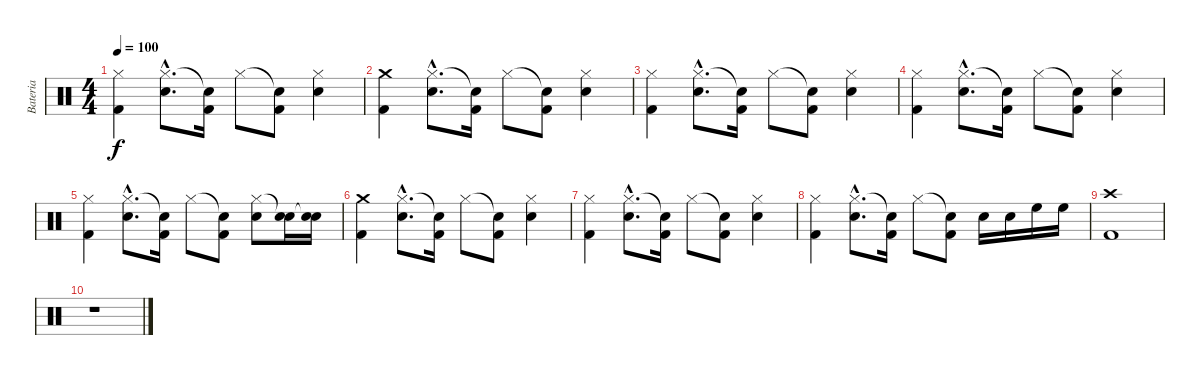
\track ("Bateria" "Bateria") {instrument percussion}
\staff {score}
\articulation defaults
\ts (4 4)
\tempo 100
\clef neutral
\ks c
("Hi-Hat (closed)" "Kick (hit) 2").4{dy f} ("Hi-Hat (closed)"{hac} "Electric Snare (hit)"{hac}).8{d} ("Snare (hit)"{t} "Kick (hit) 2").16 "Hi-Hat (closed)".8 ("Snare (hit)"{t} "Kick (hit) 2").8 ("Hi-Hat (closed)" "Electric Snare (hit)").4 |
("Crash medium (hit)" "Kick (hit) 2").4 ("Hi-Hat (closed)"{hac} "Electric Snare (hit)"{hac}).8{d} ("Snare (hit)"{t} "Kick (hit) 2").16 "Hi-Hat (closed)".8 ("Snare (hit)"{t} "Kick (hit) 2").8 ("Hi-Hat (closed)" "Electric Snare (hit)").4 |
("Hi-Hat (closed)" "Kick (hit) 2").4 ("Hi-Hat (closed)"{hac} "Electric Snare (hit)"{hac}).8{d} ("Snare (hit)"{t} "Kick (hit) 2").16 "Hi-Hat (closed)".8 ("Snare (hit)"{t} "Kick (hit) 2").8 ("Hi-Hat (closed)" "Electric Snare (hit)").4 |
("Hi-Hat (closed)" "Kick (hit) 2").4 ("Hi-Hat (closed)"{hac} "Electric Snare (hit)"{hac}).8{d} ("Snare (hit)"{t} "Kick (hit) 2").16 "Hi-Hat (closed)".8 ("Snare (hit)"{t} "Kick (hit) 2").8 ("Hi-Hat (closed)" "Electric Snare (hit)").4 |
("Hi-Hat (closed)" "Kick (hit) 2").4 ("Hi-Hat (closed)"{hac} "Electric Snare (hit)"{hac}).8{d} ("Snare (hit)"{t} "Kick (hit) 2").16 "Hi-Hat (closed)".8 ("Snare (hit)"{t} "Kick (hit) 2").8 ("Hi-Hat (closed)" "Electric Snare (hit)").8 ("Snare (hit)"{t} "Electric Snare (hit)").16 ("Snare (hit)"{t} "Electric Snare (hit)").16 |
("Crash medium (hit)" "Kick (hit) 2").4 ("Hi-Hat (closed)"{hac} "Electric Snare (hit)"{hac}).8{d} ("Snare (hit)"{t} "Kick (hit) 2").16 "Hi-Hat (closed)".8 ("Snare (hit)"{t} "Kick (hit) 2").8 ("Hi-Hat (closed)" "Electric Snare (hit)").4 |
("Hi-Hat (closed)" "Kick (hit) 2").4 ("Hi-Hat (closed)"{hac} "Electric Snare (hit)"{hac}).8{d} ("Snare (hit)"{t} "Kick (hit) 2").16 "Hi-Hat (closed)".8 ("Snare (hit)"{t} "Kick (hit) 2").8 ("Hi-Hat (closed)" "Electric Snare (hit)").4 |
("Hi-Hat (closed)" "Kick (hit) 2").4 ("Hi-Hat (closed)"{hac} "Electric Snare (hit)"{hac}).8{d} ("Snare (hit)"{t} "Kick (hit) 2").16 "Hi-Hat (closed)".8 ("Snare (hit)"{t} "Kick (hit) 2").8 "Electric Snare (hit)".16 "Electric Snare (hit)".16 "High Floor Tom (hit)".16 "High Floor Tom (hit)".16 |
("Crash high (hit)" "Kick (hit) 2").1 |
r.1
